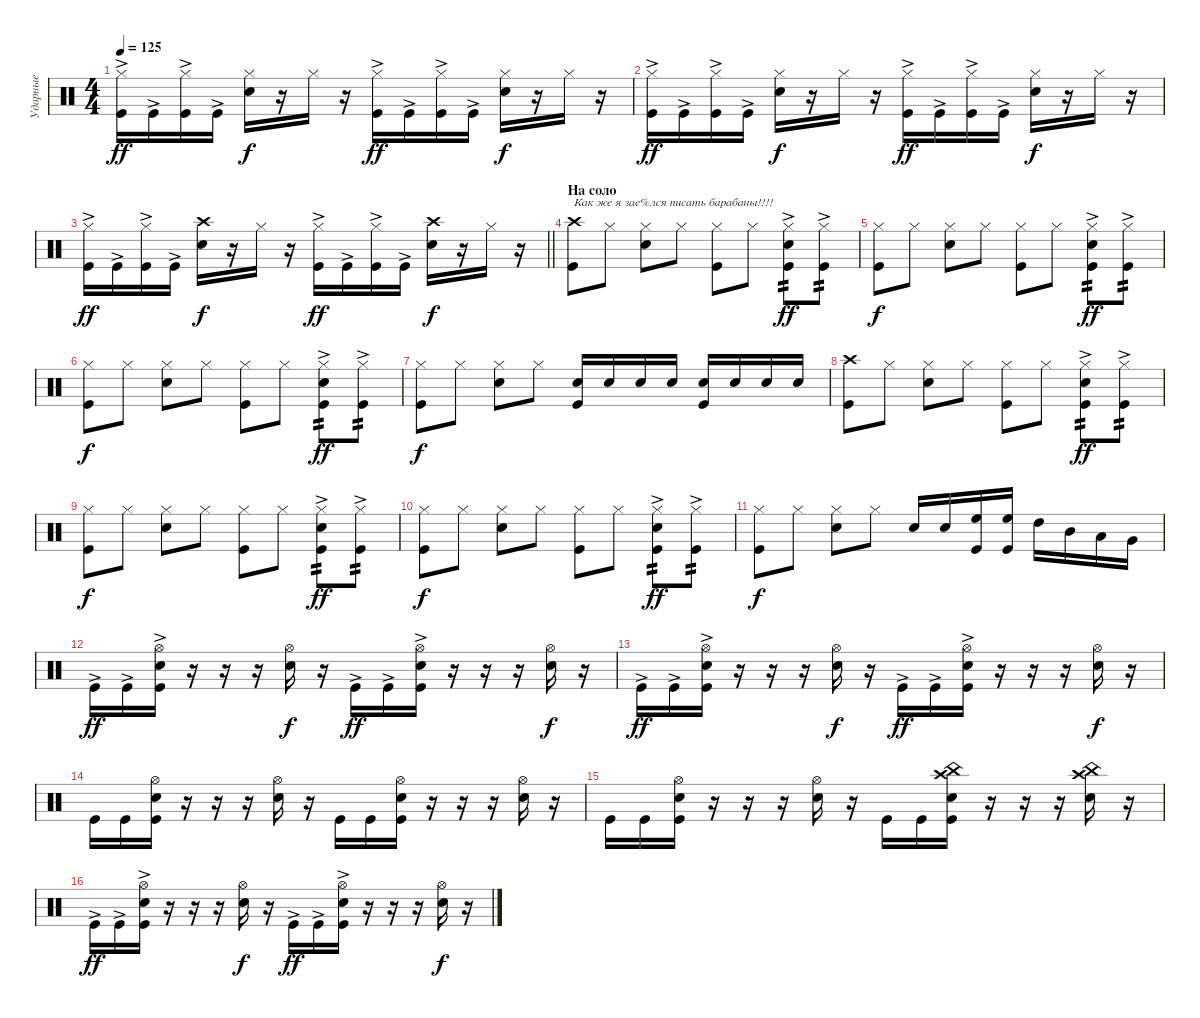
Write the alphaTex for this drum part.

\track ("Ударные" "Ударные") {instrument percussion}
\staff {score}
\articulation defaults
\ts (4 4)
\tempo 125
\clef neutral
\ks c
("Hi-Hat (closed)" "Kick (hit)"{ac}).16{dy ff} "Kick (hit)"{ac}.16 ("Hi-Hat (closed)" "Kick (hit)"{ac}).16 "Kick (hit)"{ac}.16 ("Hi-Hat (closed)" "Snare (hit) 2").16{dy f} r.16 "Hi-Hat (closed)".16 r.16 ("Hi-Hat (closed)" "Kick (hit)"{ac}).16{dy ff} "Kick (hit)"{ac}.16 ("Hi-Hat (closed)" "Kick (hit)"{ac}).16 "Kick (hit)"{ac}.16 ("Hi-Hat (closed)" "Snare (hit) 2").16{dy f} r.16 "Hi-Hat (closed)".16 r.16 |
("Hi-Hat (closed)" "Kick (hit)"{ac}).16{dy ff} "Kick (hit)"{ac}.16 ("Hi-Hat (closed)" "Kick (hit)"{ac}).16 "Kick (hit)"{ac}.16 ("Hi-Hat (closed)" "Snare (hit) 2").16{dy f} r.16 "Hi-Hat (closed)".16 r.16 ("Hi-Hat (closed)" "Kick (hit)"{ac}).16{dy ff} "Kick (hit)"{ac}.16 ("Hi-Hat (closed)" "Kick (hit)"{ac}).16 "Kick (hit)"{ac}.16 ("Hi-Hat (closed)" "Snare (hit) 2").16{dy f} r.16 "Hi-Hat (closed)".16 r.16 |
\barLineRight lightlight
("Hi-Hat (closed)" "Kick (hit)"{ac}).16{dy ff} "Kick (hit)"{ac}.16 ("Hi-Hat (closed)" "Kick (hit)"{ac}).16 "Kick (hit)"{ac}.16 ("Crash high (hit)" "Snare (hit) 2").16{dy f} r.16 "Hi-Hat (closed)".16 r.16 ("Hi-Hat (closed)" "Kick (hit)"{ac}).16{dy ff} "Kick (hit)"{ac}.16 ("Hi-Hat (closed)" "Kick (hit)"{ac}).16 "Kick (hit)"{ac}.16 ("Crash high (hit)" "Snare (hit) 2").16{dy f} r.16 "Hi-Hat (closed)".16 r.16 |
\section ("" "На соло")
("Crash high (hit)" "Kick (hit)").8{txt "Как же я зае%лся писать барабаны!!!!"} "Hi-Hat (closed)".8 ("Hi-Hat (closed)" "Snare (hit) 2").8 "Hi-Hat (closed)".8 ("Hi-Hat (closed)" "Kick (hit)").8 "Hi-Hat (closed)".8 ("Hi-Hat (closed)" "Snare (hit) 2" "Kick (hit)"{ac}).8{tp 2 dy ff} ("Hi-Hat (closed)" "Kick (hit)"{ac}).8{tp 2} |
("Hi-Hat (closed)" "Kick (hit)").8{dy f} "Hi-Hat (closed)".8 ("Hi-Hat (closed)" "Snare (hit) 2").8 "Hi-Hat (closed)".8 ("Hi-Hat (closed)" "Kick (hit)").8 "Hi-Hat (closed)".8 ("Hi-Hat (closed)" "Snare (hit) 2" "Kick (hit)"{ac}).8{tp 2 dy ff} ("Hi-Hat (closed)" "Kick (hit)"{ac}).8{tp 2} |
("Hi-Hat (closed)" "Kick (hit)").8{dy f} "Hi-Hat (closed)".8 ("Hi-Hat (closed)" "Snare (hit) 2").8 "Hi-Hat (closed)".8 ("Hi-Hat (closed)" "Kick (hit)").8 "Hi-Hat (closed)".8 ("Hi-Hat (closed)" "Snare (hit) 2" "Kick (hit)"{ac}).8{tp 2 dy ff} ("Hi-Hat (closed)" "Kick (hit)"{ac}).8{tp 2} |
("Hi-Hat (closed)" "Kick (hit)").8{dy f} "Hi-Hat (closed)".8 ("Hi-Hat (closed)" "Snare (hit) 2").8 "Hi-Hat (closed)".8 ("Snare (hit) 2" "Kick (hit)").16 "Snare (hit) 2".16 "Snare (hit) 2".16 "Snare (hit) 2".16 ("Snare (hit) 2" "Kick (hit)").16 "Snare (hit) 2".16 "Snare (hit) 2".16 "Snare (hit) 2".16 |
("Crash high (hit)" "Kick (hit)").8 "Hi-Hat (closed)".8 ("Hi-Hat (closed)" "Snare (hit) 2").8 "Hi-Hat (closed)".8 ("Hi-Hat (closed)" "Kick (hit)").8 "Hi-Hat (closed)".8 ("Hi-Hat (closed)" "Snare (hit) 2" "Kick (hit)"{ac}).8{tp 2 dy ff} ("Hi-Hat (closed)" "Kick (hit)"{ac}).8{tp 2} |
("Hi-Hat (closed)" "Kick (hit)").8{dy f} "Hi-Hat (closed)".8 ("Hi-Hat (closed)" "Snare (hit) 2").8 "Hi-Hat (closed)".8 ("Hi-Hat (closed)" "Kick (hit)").8 "Hi-Hat (closed)".8 ("Hi-Hat (closed)" "Snare (hit) 2" "Kick (hit)"{ac}).8{tp 2 dy ff} ("Hi-Hat (closed)" "Kick (hit)"{ac}).8{tp 2} |
("Hi-Hat (closed)" "Kick (hit)").8{dy f} "Hi-Hat (closed)".8 ("Hi-Hat (closed)" "Snare (hit) 2").8 "Hi-Hat (closed)".8 ("Hi-Hat (closed)" "Kick (hit)").8 "Hi-Hat (closed)".8 ("Hi-Hat (closed)" "Snare (hit) 2" "Kick (hit)"{ac}).8{tp 2 dy ff} ("Hi-Hat (closed)" "Kick (hit)"{ac}).8{tp 2} |
("Hi-Hat (closed)" "Kick (hit)").8{dy f} "Hi-Hat (closed)".8 ("Hi-Hat (closed)" "Snare (hit) 2").8 "Hi-Hat (closed)".8 "Snare (hit) 2".16 "Snare (hit) 2".16 ("High Floor Tom (hit)" "Kick (hit)").16 ("High Floor Tom (hit)" "Kick (hit)").16 "High Tom (hit)".16 "Mid Tom (hit)".16 "Low Tom (hit)".16 "Very Low Tom (hit)".16 |
"Kick (hit)"{ac}.16{dy ff} "Kick (hit)"{ac}.16 ("Hi-Hat (open)" "Snare (hit) 2" "Kick (hit)"{ac}).16 r.16 r.16 r.16 ("Hi-Hat (open)" "Snare (hit) 2").16{dy f} r.16 "Kick (hit)"{ac}.16{dy ff} "Kick (hit)"{ac}.16 ("Hi-Hat (open)" "Snare (hit) 2" "Kick (hit)"{ac}).16 r.16 r.16 r.16 ("Hi-Hat (open)" "Snare (hit) 2").16{dy f} r.16 |
"Kick (hit)"{ac}.16{dy ff} "Kick (hit)"{ac}.16 ("Hi-Hat (open)" "Snare (hit) 2" "Kick (hit)"{ac}).16 r.16 r.16 r.16 ("Hi-Hat (open)" "Snare (hit) 2").16{dy f} r.16 "Kick (hit)"{ac}.16{dy ff} "Kick (hit)"{ac}.16 ("Hi-Hat (open)" "Snare (hit) 2" "Kick (hit)"{ac}).16 r.16 r.16 r.16 ("Hi-Hat (open)" "Snare (hit) 2").16{dy f} r.16 |
"Kick (hit)".16 "Kick (hit)".16 ("Hi-Hat (open)" "Snare (hit) 2" "Kick (hit)").16 r.16 r.16 r.16 ("Hi-Hat (open)" "Snare (hit) 2").16 r.16 "Kick (hit)".16 "Kick (hit)".16 ("Hi-Hat (open)" "Snare (hit) 2" "Kick (hit)").16 r.16 r.16 r.16 ("Hi-Hat (open)" "Snare (hit) 2").16 r.16 |
"Kick (hit)".16 "Kick (hit)".16 ("Hi-Hat (open)" "Snare (hit) 2" "Kick (hit)").16 r.16 r.16 r.16 ("Hi-Hat (open)" "Snare (hit) 2").16 r.16 "Kick (hit)".16 "Kick (hit)".16 ("China (hit)" "Crash high (hit)" "Snare (hit) 2" "Kick (hit)").16 r.16 r.16 r.16 ("China (hit)" "Crash high (hit)" "Snare (hit) 2").16 r.16 |
"Kick (hit)"{ac}.16{dy ff} "Kick (hit)"{ac}.16 ("Hi-Hat (open)" "Snare (hit) 2" "Kick (hit)"{ac}).16 r.16 r.16 r.16 ("Hi-Hat (open)" "Snare (hit) 2").16{dy f} r.16 "Kick (hit)"{ac}.16{dy ff} "Kick (hit)"{ac}.16 ("Hi-Hat (open)" "Snare (hit) 2" "Kick (hit)"{ac}).16 r.16 r.16 r.16 ("Hi-Hat (open)" "Snare (hit) 2").16{dy f} r.16
